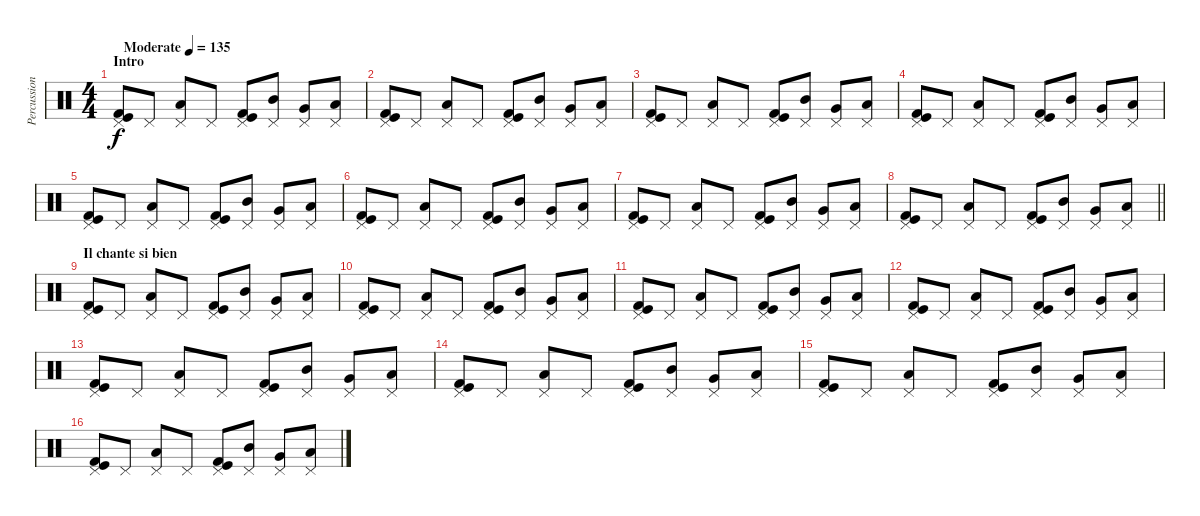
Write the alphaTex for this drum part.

\track ("Percussions" "Percussion") {instrument percussion}
\staff {score}
\articulation defaults
\ts (4 4)
\section ("" "Intro")
\tempo (135 "Moderate")
\clef neutral
\ks c
("Pedal Hi-Hat (hit)" "Kick (hit)" "Kick (hit) 2").8{dy f} "Pedal Hi-Hat (hit)".8 ("Pedal Hi-Hat (hit)" "Low Tom (hit)").8 "Pedal Hi-Hat (hit)".8 ("Pedal Hi-Hat (hit)" "Kick (hit)" "Kick (hit) 2").8 ("Pedal Hi-Hat (hit)" "Mid Tom (hit)").8 ("Pedal Hi-Hat (hit)" "Very Low Tom (hit)").8 ("Pedal Hi-Hat (hit)" "Low Floor Tom (hit)").8 |
("Pedal Hi-Hat (hit)" "Kick (hit)" "Kick (hit) 2").8 "Pedal Hi-Hat (hit)".8 ("Pedal Hi-Hat (hit)" "Low Tom (hit)").8 "Pedal Hi-Hat (hit)".8 ("Pedal Hi-Hat (hit)" "Kick (hit)" "Kick (hit) 2").8 ("Pedal Hi-Hat (hit)" "Mid Tom (hit)").8 ("Pedal Hi-Hat (hit)" "Very Low Tom (hit)").8 ("Pedal Hi-Hat (hit)" "Low Floor Tom (hit)").8 |
("Pedal Hi-Hat (hit)" "Kick (hit)" "Kick (hit) 2").8 "Pedal Hi-Hat (hit)".8 ("Pedal Hi-Hat (hit)" "Low Tom (hit)").8 "Pedal Hi-Hat (hit)".8 ("Pedal Hi-Hat (hit)" "Kick (hit)" "Kick (hit) 2").8 ("Pedal Hi-Hat (hit)" "Mid Tom (hit)").8 ("Pedal Hi-Hat (hit)" "Very Low Tom (hit)").8 ("Pedal Hi-Hat (hit)" "Low Floor Tom (hit)").8 |
("Pedal Hi-Hat (hit)" "Kick (hit)" "Kick (hit) 2").8 "Pedal Hi-Hat (hit)".8 ("Pedal Hi-Hat (hit)" "Low Tom (hit)").8 "Pedal Hi-Hat (hit)".8 ("Pedal Hi-Hat (hit)" "Kick (hit)" "Kick (hit) 2").8 ("Pedal Hi-Hat (hit)" "Mid Tom (hit)").8 ("Pedal Hi-Hat (hit)" "Very Low Tom (hit)").8 ("Pedal Hi-Hat (hit)" "Low Floor Tom (hit)").8 |
("Pedal Hi-Hat (hit)" "Kick (hit)" "Kick (hit) 2").8 "Pedal Hi-Hat (hit)".8 ("Pedal Hi-Hat (hit)" "Low Tom (hit)").8 "Pedal Hi-Hat (hit)".8 ("Pedal Hi-Hat (hit)" "Kick (hit)" "Kick (hit) 2").8 ("Pedal Hi-Hat (hit)" "Mid Tom (hit)").8 ("Pedal Hi-Hat (hit)" "Very Low Tom (hit)").8 ("Pedal Hi-Hat (hit)" "Low Floor Tom (hit)").8 |
("Pedal Hi-Hat (hit)" "Kick (hit)" "Kick (hit) 2").8 "Pedal Hi-Hat (hit)".8 ("Pedal Hi-Hat (hit)" "Low Tom (hit)").8 "Pedal Hi-Hat (hit)".8 ("Pedal Hi-Hat (hit)" "Kick (hit)" "Kick (hit) 2").8 ("Pedal Hi-Hat (hit)" "Mid Tom (hit)").8 ("Pedal Hi-Hat (hit)" "Very Low Tom (hit)").8 ("Pedal Hi-Hat (hit)" "Low Floor Tom (hit)").8 |
("Pedal Hi-Hat (hit)" "Kick (hit)" "Kick (hit) 2").8 "Pedal Hi-Hat (hit)".8 ("Pedal Hi-Hat (hit)" "Low Tom (hit)").8 "Pedal Hi-Hat (hit)".8 ("Pedal Hi-Hat (hit)" "Kick (hit)" "Kick (hit) 2").8 ("Pedal Hi-Hat (hit)" "Mid Tom (hit)").8 ("Pedal Hi-Hat (hit)" "Very Low Tom (hit)").8 ("Pedal Hi-Hat (hit)" "Low Floor Tom (hit)").8 |
\barLineRight lightlight
("Pedal Hi-Hat (hit)" "Kick (hit)" "Kick (hit) 2").8 "Pedal Hi-Hat (hit)".8 ("Pedal Hi-Hat (hit)" "Low Tom (hit)").8 "Pedal Hi-Hat (hit)".8 ("Pedal Hi-Hat (hit)" "Kick (hit)" "Kick (hit) 2").8 ("Pedal Hi-Hat (hit)" "Mid Tom (hit)").8 ("Pedal Hi-Hat (hit)" "Very Low Tom (hit)").8 ("Pedal Hi-Hat (hit)" "Low Floor Tom (hit)").8 |
\section ("" "Il chante si bien")
("Pedal Hi-Hat (hit)" "Kick (hit)" "Kick (hit) 2").8 "Pedal Hi-Hat (hit)".8 ("Pedal Hi-Hat (hit)" "Low Tom (hit)").8 "Pedal Hi-Hat (hit)".8 ("Pedal Hi-Hat (hit)" "Kick (hit)" "Kick (hit) 2").8 ("Pedal Hi-Hat (hit)" "Mid Tom (hit)").8 ("Pedal Hi-Hat (hit)" "Very Low Tom (hit)").8 ("Pedal Hi-Hat (hit)" "Low Floor Tom (hit)").8 |
("Pedal Hi-Hat (hit)" "Kick (hit)" "Kick (hit) 2").8 "Pedal Hi-Hat (hit)".8 ("Pedal Hi-Hat (hit)" "Low Tom (hit)").8 "Pedal Hi-Hat (hit)".8 ("Pedal Hi-Hat (hit)" "Kick (hit)" "Kick (hit) 2").8 ("Pedal Hi-Hat (hit)" "Mid Tom (hit)").8 ("Pedal Hi-Hat (hit)" "Very Low Tom (hit)").8 ("Pedal Hi-Hat (hit)" "Low Floor Tom (hit)").8 |
("Pedal Hi-Hat (hit)" "Kick (hit)" "Kick (hit) 2").8 "Pedal Hi-Hat (hit)".8 ("Pedal Hi-Hat (hit)" "Low Tom (hit)").8 "Pedal Hi-Hat (hit)".8 ("Pedal Hi-Hat (hit)" "Kick (hit)" "Kick (hit) 2").8 ("Pedal Hi-Hat (hit)" "Mid Tom (hit)").8 ("Pedal Hi-Hat (hit)" "Very Low Tom (hit)").8 ("Pedal Hi-Hat (hit)" "Low Floor Tom (hit)").8 |
("Pedal Hi-Hat (hit)" "Kick (hit)" "Kick (hit) 2").8 "Pedal Hi-Hat (hit)".8 ("Pedal Hi-Hat (hit)" "Low Tom (hit)").8 "Pedal Hi-Hat (hit)".8 ("Pedal Hi-Hat (hit)" "Kick (hit)" "Kick (hit) 2").8 ("Pedal Hi-Hat (hit)" "Mid Tom (hit)").8 ("Pedal Hi-Hat (hit)" "Very Low Tom (hit)").8 ("Pedal Hi-Hat (hit)" "Low Floor Tom (hit)").8 |
("Pedal Hi-Hat (hit)" "Kick (hit)" "Kick (hit) 2").8 "Pedal Hi-Hat (hit)".8 ("Pedal Hi-Hat (hit)" "Low Tom (hit)").8 "Pedal Hi-Hat (hit)".8 ("Pedal Hi-Hat (hit)" "Kick (hit)" "Kick (hit) 2").8 ("Pedal Hi-Hat (hit)" "Mid Tom (hit)").8 ("Pedal Hi-Hat (hit)" "Very Low Tom (hit)").8 ("Pedal Hi-Hat (hit)" "Low Floor Tom (hit)").8 |
("Pedal Hi-Hat (hit)" "Kick (hit)" "Kick (hit) 2").8 "Pedal Hi-Hat (hit)".8 ("Pedal Hi-Hat (hit)" "Low Tom (hit)").8 "Pedal Hi-Hat (hit)".8 ("Pedal Hi-Hat (hit)" "Kick (hit)" "Kick (hit) 2").8 ("Pedal Hi-Hat (hit)" "Mid Tom (hit)").8 ("Pedal Hi-Hat (hit)" "Very Low Tom (hit)").8 ("Pedal Hi-Hat (hit)" "Low Floor Tom (hit)").8 |
("Pedal Hi-Hat (hit)" "Kick (hit)" "Kick (hit) 2").8 "Pedal Hi-Hat (hit)".8 ("Pedal Hi-Hat (hit)" "Low Tom (hit)").8 "Pedal Hi-Hat (hit)".8 ("Pedal Hi-Hat (hit)" "Kick (hit)" "Kick (hit) 2").8 ("Pedal Hi-Hat (hit)" "Mid Tom (hit)").8 ("Pedal Hi-Hat (hit)" "Very Low Tom (hit)").8 ("Pedal Hi-Hat (hit)" "Low Floor Tom (hit)").8 |
("Pedal Hi-Hat (hit)" "Kick (hit)" "Kick (hit) 2").8 "Pedal Hi-Hat (hit)".8 ("Pedal Hi-Hat (hit)" "Low Tom (hit)").8 "Pedal Hi-Hat (hit)".8 ("Pedal Hi-Hat (hit)" "Kick (hit)" "Kick (hit) 2").8 ("Pedal Hi-Hat (hit)" "Mid Tom (hit)").8 ("Pedal Hi-Hat (hit)" "Very Low Tom (hit)").8 ("Pedal Hi-Hat (hit)" "Low Floor Tom (hit)").8
